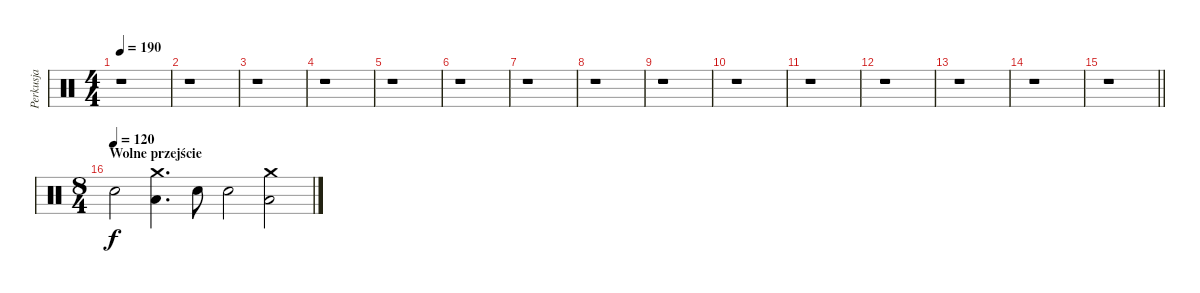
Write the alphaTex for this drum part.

\track ("Perkusja" "Perkusja") {instrument percussion}
\staff {score}
\articulation defaults
\ts (4 4)
\tempo 190
\clef neutral
\ks c
r.1{dy f} |
r.1 |
r.1 |
r.1 |
r.1 |
r.1 |
r.1 |
r.1 |
r.1 |
r.1 |
r.1 |
r.1 |
r.1 |
r.1 |
\barLineRight lightlight
r.1 |
\ts (8 4)
\section ("" "Wolne przejście ")
\tempo (120)
"Snare (hit) 2".2 ("Crash medium (hit)" "Low Tom (hit)").4{d} "Snare (hit) 2".8 "Snare (hit) 2".2 ("Crash medium (hit)" "Low Tom (hit)").2
